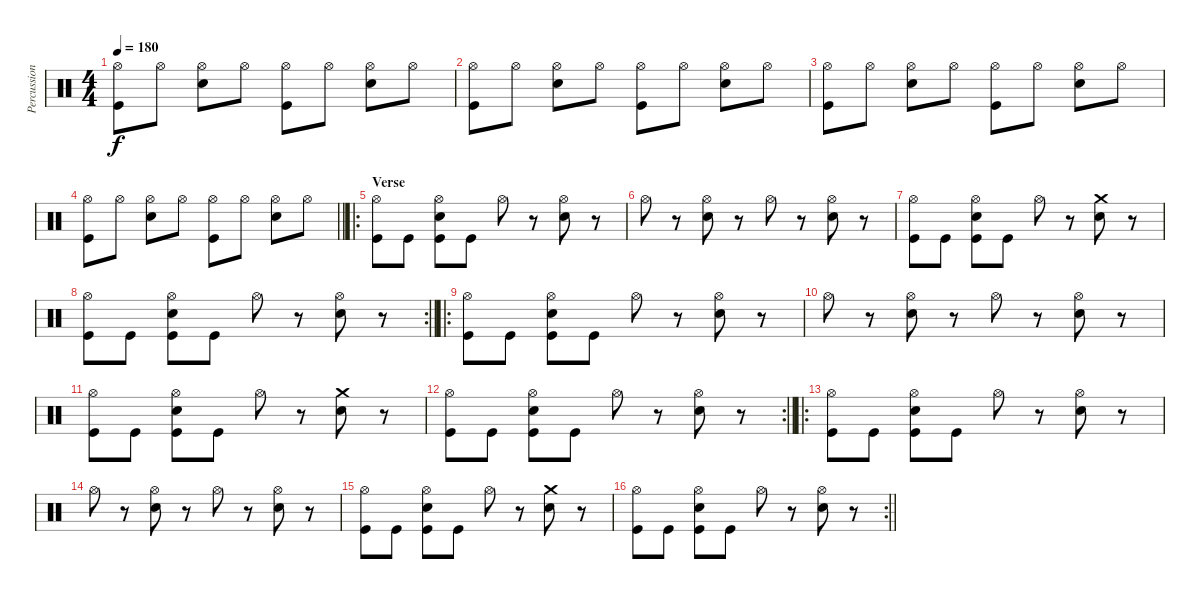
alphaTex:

\track ("Percussion" "Percussion") {instrument percussion}
\staff {score}
\articulation defaults
\ts (4 4)
\tempo 180
\clef neutral
\ks c
("Hi-Hat (open)" "Kick (hit)").8{dy f} "Hi-Hat (open)".8 ("Hi-Hat (open)" "Snare (hit) 2").8 "Hi-Hat (open)".8 ("Hi-Hat (open)" "Kick (hit)").8 "Hi-Hat (open)".8 ("Hi-Hat (open)" "Snare (hit) 2").8 "Hi-Hat (open)".8 |
("Hi-Hat (open)" "Kick (hit)").8 "Hi-Hat (open)".8 ("Hi-Hat (open)" "Snare (hit) 2").8 "Hi-Hat (open)".8 ("Hi-Hat (open)" "Kick (hit)").8 "Hi-Hat (open)".8 ("Hi-Hat (open)" "Snare (hit) 2").8 "Hi-Hat (open)".8 |
("Hi-Hat (open)" "Kick (hit)").8 "Hi-Hat (open)".8 ("Hi-Hat (open)" "Snare (hit) 2").8 "Hi-Hat (open)".8 ("Hi-Hat (open)" "Kick (hit)").8 "Hi-Hat (open)".8 ("Hi-Hat (open)" "Snare (hit) 2").8 "Hi-Hat (open)".8 |
\barLineRight lightlight
("Hi-Hat (open)" "Kick (hit)").8 "Hi-Hat (open)".8 ("Hi-Hat (open)" "Snare (hit) 2").8 "Hi-Hat (open)".8 ("Hi-Hat (open)" "Kick (hit)").8 "Hi-Hat (open)".8 ("Hi-Hat (open)" "Snare (hit) 2").8 "Hi-Hat (open)".8 |
\ro
\section ("" "Verse")
("Hi-Hat (open)" "Kick (hit)").8 "Kick (hit)".8 ("Hi-Hat (open)" "Snare (hit) 2" "Kick (hit)").8 "Kick (hit)".8 "Hi-Hat (open)".8 r.8 ("Hi-Hat (open)" "Snare (hit) 2").8 r.8 |
"Hi-Hat (open)".8 r.8 ("Hi-Hat (open)" "Snare (hit) 2").8 r.8 "Hi-Hat (open)".8 r.8 ("Hi-Hat (open)" "Snare (hit) 2").8 r.8 |
("Hi-Hat (open)" "Kick (hit)").8 "Kick (hit)".8 ("Hi-Hat (open)" "Snare (hit) 2" "Kick (hit)").8 "Kick (hit)".8 "Hi-Hat (open)".8 r.8 ("Crash medium (hit)" "Snare (hit) 2").8 r.8 |
\rc 2
\barLineRight lightlight
("Hi-Hat (open)" "Kick (hit)").8 "Kick (hit)".8 ("Hi-Hat (open)" "Snare (hit) 2" "Kick (hit)").8 "Kick (hit)".8 "Hi-Hat (open)".8 r.8 ("Hi-Hat (open)" "Snare (hit) 2").8 r.8 |
\ro
("Hi-Hat (open)" "Kick (hit)").8 "Kick (hit)".8 ("Hi-Hat (open)" "Snare (hit) 2" "Kick (hit)").8 "Kick (hit)".8 "Hi-Hat (open)".8 r.8 ("Hi-Hat (open)" "Snare (hit) 2").8 r.8 |
"Hi-Hat (open)".8 r.8 ("Hi-Hat (open)" "Snare (hit) 2").8 r.8 "Hi-Hat (open)".8 r.8 ("Hi-Hat (open)" "Snare (hit) 2").8 r.8 |
("Hi-Hat (open)" "Kick (hit)").8 "Kick (hit)".8 ("Hi-Hat (open)" "Snare (hit) 2" "Kick (hit)").8 "Kick (hit)".8 "Hi-Hat (open)".8 r.8 ("Crash medium (hit)" "Snare (hit) 2").8 r.8 |
\rc 2
\barLineRight lightlight
("Hi-Hat (open)" "Kick (hit)").8 "Kick (hit)".8 ("Hi-Hat (open)" "Snare (hit) 2" "Kick (hit)").8 "Kick (hit)".8 "Hi-Hat (open)".8 r.8 ("Hi-Hat (open)" "Snare (hit) 2").8 r.8 |
\ro
("Hi-Hat (open)" "Kick (hit)").8 "Kick (hit)".8 ("Hi-Hat (open)" "Snare (hit) 2" "Kick (hit)").8 "Kick (hit)".8 "Hi-Hat (open)".8 r.8 ("Hi-Hat (open)" "Snare (hit) 2").8 r.8 |
"Hi-Hat (open)".8 r.8 ("Hi-Hat (open)" "Snare (hit) 2").8 r.8 "Hi-Hat (open)".8 r.8 ("Hi-Hat (open)" "Snare (hit) 2").8 r.8 |
("Hi-Hat (open)" "Kick (hit)").8 "Kick (hit)".8 ("Hi-Hat (open)" "Snare (hit) 2" "Kick (hit)").8 "Kick (hit)".8 "Hi-Hat (open)".8 r.8 ("Crash medium (hit)" "Snare (hit) 2").8 r.8 |
\rc 2
\barLineRight lightlight
("Hi-Hat (open)" "Kick (hit)").8 "Kick (hit)".8 ("Hi-Hat (open)" "Snare (hit) 2" "Kick (hit)").8 "Kick (hit)".8 "Hi-Hat (open)".8 r.8 ("Hi-Hat (open)" "Snare (hit) 2").8 r.8
